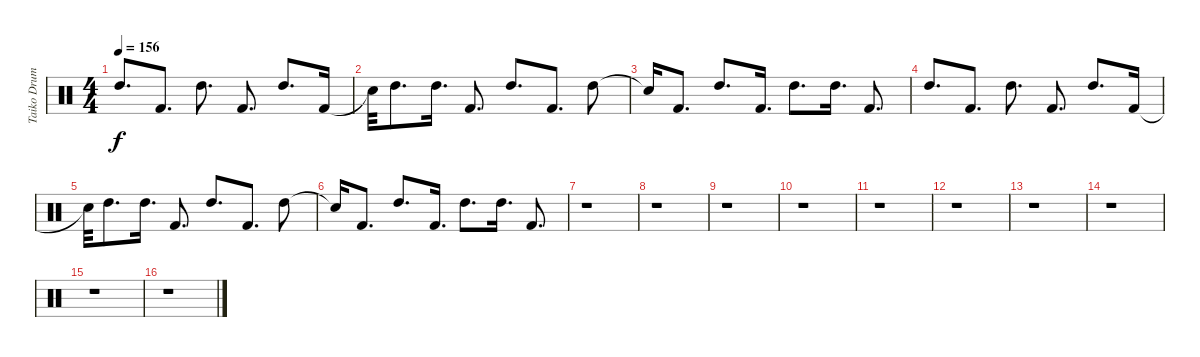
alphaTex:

\track ("Taiko Drum" "Taiko Drum") {instrument percussion}
\staff {score}
\articulation defaults
\ts (4 4)
\tempo 156
\clef neutral
\ks c "High Tom (hit)".8{d dy f} "Kick (hit) 2".8{d} "High Tom (hit)".8{d} "Kick (hit) 2".8{d} "High Tom (hit)".8{d} "Kick (hit) 2".16
|
"Snare (hit)"{t}.32 "High Tom (hit)".8{d} "High Tom (hit)".16{d} "Kick (hit) 2".8{d} "High Tom (hit)".8{d} "Kick (hit) 2".8{d} "High Tom (hit)".8 |
"Snare (hit)"{t}.16 "Kick (hit) 2".8{d} "High Tom (hit)".8{d} "Kick (hit) 2".16{d} "High Tom (hit)".8{d} "High Tom (hit)".16{d} "Kick (hit) 2".8{d} |
"High Tom (hit)".8{d} "Kick (hit) 2".8{d} "High Tom (hit)".8{d} "Kick (hit) 2".8{d} "High Tom (hit)".8{d} "Kick (hit) 2".16 |
"Snare (hit)"{t}.32 "High Tom (hit)".8{d} "High Tom (hit)".16{d} "Kick (hit) 2".8{d} "High Tom (hit)".8{d} "Kick (hit) 2".8{d} "High Tom (hit)".8 |
"Snare (hit)"{t}.16 "Kick (hit) 2".8{d} "High Tom (hit)".8{d} "Kick (hit) 2".16{d} "High Tom (hit)".8{d} "High Tom (hit)".16{d} "Kick (hit) 2".8{d} |
r.1 |
r.1 |
r.1 |
r.1 |
r.1 |
r.1 |
r.1 |
r.1 |
r.1 |
r.1
